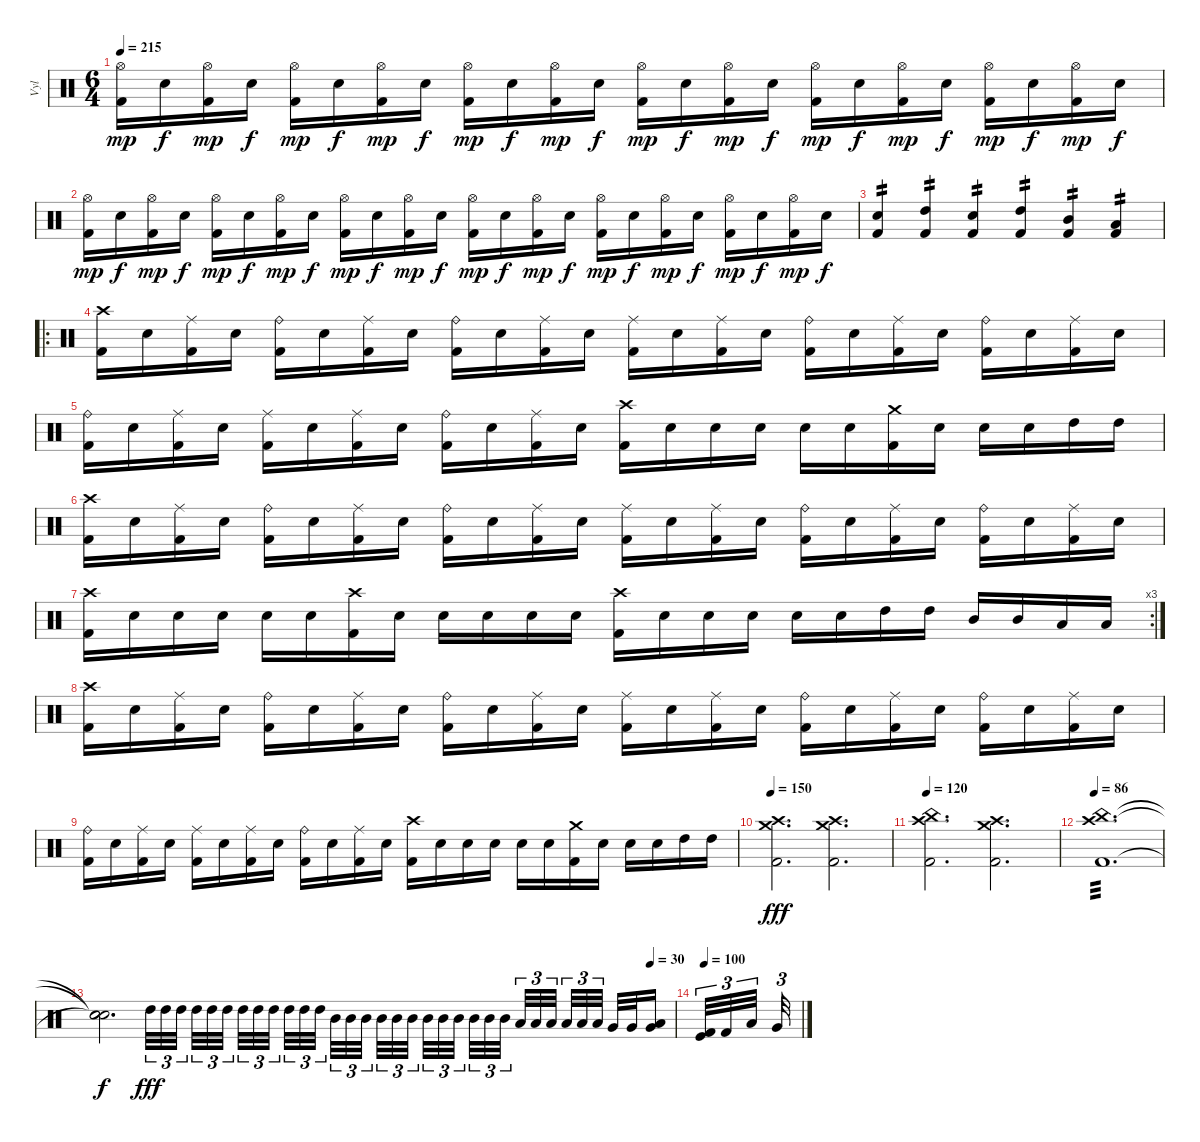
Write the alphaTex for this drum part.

\track ("Vyl" "Vyl") {instrument percussion}
\staff {score}
\articulation defaults
\ts (6 4)
\tempo 215
\clef neutral
\ks c
("Hi-Hat (open)" "Kick (hit) 2").16{dy mp} "Snare (hit) 2".16{dy f} ("Hi-Hat (open)" "Kick (hit) 2").16{dy mp} "Snare (hit) 2".16{dy f} ("Hi-Hat (open)" "Kick (hit) 2").16{dy mp} "Snare (hit) 2".16{dy f} ("Hi-Hat (open)" "Kick (hit) 2").16{dy mp} "Snare (hit) 2".16{dy f} ("Hi-Hat (open)" "Kick (hit) 2").16{dy mp} "Snare (hit) 2".16{dy f} ("Hi-Hat (open)" "Kick (hit) 2").16{dy mp} "Snare (hit) 2".16{dy f} ("Hi-Hat (open)" "Kick (hit) 2").16{dy mp} "Snare (hit) 2".16{dy f} ("Hi-Hat (open)" "Kick (hit) 2").16{dy mp} "Snare (hit) 2".16{dy f} ("Hi-Hat (open)" "Kick (hit) 2").16{dy mp} "Snare (hit) 2".16{dy f} ("Hi-Hat (open)" "Kick (hit) 2").16{dy mp} "Snare (hit) 2".16{dy f} ("Hi-Hat (open)" "Kick (hit) 2").16{dy mp} "Snare (hit) 2".16{dy f} ("Hi-Hat (open)" "Kick (hit) 2").16{dy mp} "Snare (hit) 2".16{dy f} |
("Hi-Hat (open)" "Kick (hit) 2").16{dy mp} "Snare (hit) 2".16{dy f} ("Hi-Hat (open)" "Kick (hit) 2").16{dy mp} "Snare (hit) 2".16{dy f} ("Hi-Hat (open)" "Kick (hit) 2").16{dy mp} "Snare (hit) 2".16{dy f} ("Hi-Hat (open)" "Kick (hit) 2").16{dy mp} "Snare (hit) 2".16{dy f} ("Hi-Hat (open)" "Kick (hit) 2").16{dy mp} "Snare (hit) 2".16{dy f} ("Hi-Hat (open)" "Kick (hit) 2").16{dy mp} "Snare (hit) 2".16{dy f} ("Hi-Hat (open)" "Kick (hit) 2").16{dy mp} "Snare (hit) 2".16{dy f} ("Hi-Hat (open)" "Kick (hit) 2").16{dy mp} "Snare (hit) 2".16{dy f} ("Hi-Hat (open)" "Kick (hit) 2").16{dy mp} "Snare (hit) 2".16{dy f} ("Hi-Hat (open)" "Kick (hit) 2").16{dy mp} "Snare (hit) 2".16{dy f} ("Hi-Hat (open)" "Kick (hit) 2").16{dy mp} "Snare (hit) 2".16{dy f} ("Hi-Hat (open)" "Kick (hit) 2").16{dy mp} "Snare (hit) 2".16{dy f} |
("Kick (hit) 2" "Snare (hit) 2").4{tp 2} ("Kick (hit) 2" "High Tom (hit)").4{tp 2} ("Kick (hit) 2" "Snare (hit) 2").4{tp 2} ("Kick (hit) 2" "High Tom (hit)").4{tp 2} ("Kick (hit) 2" "Mid Tom (hit)").4{tp 2} ("Kick (hit) 2" "Low Tom (hit)").4{tp 2} |
\ro
("Crash high (hit)" "Kick (hit) 2").16 "Snare (hit) 2".16 ("Ride (middle)" "Kick (hit) 2").16 "Snare (hit) 2".16 ("Ride (bell)" "Kick (hit) 2").16 "Snare (hit) 2".16 ("Ride (middle)" "Kick (hit) 2").16 "Snare (hit) 2".16 ("Ride (bell)" "Kick (hit) 2").16 "Snare (hit) 2".16 ("Ride (middle)" "Kick (hit) 2").16 "Snare (hit) 2".16 ("Ride (middle)" "Kick (hit) 2").16 "Snare (hit) 2".16 ("Ride (middle)" "Kick (hit) 2").16 "Snare (hit) 2".16 ("Ride (bell)" "Kick (hit) 2").16 "Snare (hit) 2".16 ("Ride (middle)" "Kick (hit) 2").16 "Snare (hit) 2".16 ("Ride (bell)" "Kick (hit) 2").16 "Snare (hit) 2".16 ("Ride (middle)" "Kick (hit) 2").16 "Snare (hit) 2".16 |
("Ride (bell)" "Kick (hit) 2").16 "Snare (hit) 2".16 ("Ride (middle)" "Kick (hit) 2").16 "Snare (hit) 2".16 ("Ride (middle)" "Kick (hit) 2").16 "Snare (hit) 2".16 ("Ride (middle)" "Kick (hit) 2").16 "Snare (hit) 2".16 ("Ride (bell)" "Kick (hit) 2").16 "Snare (hit) 2".16 ("Ride (middle)" "Kick (hit) 2").16 "Snare (hit) 2".16 ("Crash high (hit)" "Kick (hit) 2").16 "Snare (hit) 2".16 "Snare (hit) 2".16 "Snare (hit) 2".16 "Snare (hit) 2".16 "Snare (hit) 2".16 ("Crash medium (hit)" "Kick (hit) 2").16 "Snare (hit) 2".16 "Snare (hit) 2".16 "Snare (hit) 2".16 "High Tom (hit)".16 "High Tom (hit)".16 |
("Crash high (hit)" "Kick (hit) 2").16 "Snare (hit) 2".16 ("Ride (middle)" "Kick (hit) 2").16 "Snare (hit) 2".16 ("Ride (bell)" "Kick (hit) 2").16 "Snare (hit) 2".16 ("Ride (middle)" "Kick (hit) 2").16 "Snare (hit) 2".16 ("Ride (bell)" "Kick (hit) 2").16 "Snare (hit) 2".16 ("Ride (middle)" "Kick (hit) 2").16 "Snare (hit) 2".16 ("Ride (middle)" "Kick (hit) 2").16 "Snare (hit) 2".16 ("Ride (middle)" "Kick (hit) 2").16 "Snare (hit) 2".16 ("Ride (bell)" "Kick (hit) 2").16 "Snare (hit) 2".16 ("Ride (middle)" "Kick (hit) 2").16 "Snare (hit) 2".16 ("Ride (bell)" "Kick (hit) 2").16 "Snare (hit) 2".16 ("Ride (middle)" "Kick (hit) 2").16 "Snare (hit) 2".16 |
\rc 3
("Crash high (hit)" "Kick (hit) 2").16 "Snare (hit) 2".16 "Snare (hit) 2".16 "Snare (hit) 2".16 "Snare (hit) 2".16 "Snare (hit) 2".16 ("Crash high (hit)" "Kick (hit) 2").16 "Snare (hit) 2".16 "Snare (hit) 2".16 "Snare (hit) 2".16 "Snare (hit) 2".16 "Snare (hit) 2".16 ("Crash high (hit)" "Kick (hit) 2").16 "Snare (hit) 2".16 "Snare (hit) 2".16 "Snare (hit) 2".16 "Snare (hit) 2".16 "Snare (hit) 2".16 "High Tom (hit)".16 "High Tom (hit)".16 "Mid Tom (hit)".16 "Mid Tom (hit)".16 "Low Tom (hit)".16 "Low Tom (hit)".16 |
("Crash high (hit)" "Kick (hit) 2").16 "Snare (hit) 2".16 ("Ride (middle)" "Kick (hit) 2").16 "Snare (hit) 2".16 ("Ride (bell)" "Kick (hit) 2").16 "Snare (hit) 2".16 ("Ride (middle)" "Kick (hit) 2").16 "Snare (hit) 2".16 ("Ride (bell)" "Kick (hit) 2").16 "Snare (hit) 2".16 ("Ride (middle)" "Kick (hit) 2").16 "Snare (hit) 2".16 ("Ride (middle)" "Kick (hit) 2").16 "Snare (hit) 2".16 ("Ride (middle)" "Kick (hit) 2").16 "Snare (hit) 2".16 ("Ride (bell)" "Kick (hit) 2").16 "Snare (hit) 2".16 ("Ride (middle)" "Kick (hit) 2").16 "Snare (hit) 2".16 ("Ride (bell)" "Kick (hit) 2").16 "Snare (hit) 2".16 ("Ride (middle)" "Kick (hit) 2").16 "Snare (hit) 2".16 |
("Ride (bell)" "Kick (hit) 2").16 "Snare (hit) 2".16 ("Ride (middle)" "Kick (hit) 2").16 "Snare (hit) 2".16 ("Ride (middle)" "Kick (hit) 2").16 "Snare (hit) 2".16 ("Ride (middle)" "Kick (hit) 2").16 "Snare (hit) 2".16 ("Ride (bell)" "Kick (hit) 2").16 "Snare (hit) 2".16 ("Ride (middle)" "Kick (hit) 2").16 "Snare (hit) 2".16 ("Crash high (hit)" "Kick (hit) 2").16 "Snare (hit) 2".16 "Snare (hit) 2".16 "Snare (hit) 2".16 "Snare (hit) 2".16 "Snare (hit) 2".16 ("Crash medium (hit)" "Kick (hit) 2").16 "Snare (hit) 2".16 "Snare (hit) 2".16 "Snare (hit) 2".16 "High Tom (hit)".16 "High Tom (hit)".16 |
\tempo 150
("Crash medium (hit)" "Crash high (hit)" "Kick (hit) 2").2{d dy fff} ("Crash medium (hit)" "Crash high (hit)" "Kick (hit) 2").2{d} |
\tempo 120
("China (hit)" "Crash high (hit)" "Kick (hit) 2").2{d} ("Crash medium (hit)" "Crash high (hit)" "Kick (hit) 2").2{d} |
\tempo 86
("Crash high (hit)" "China (hit)" "Kick (hit) 2").1{d tp 3} |
\tempo (30 0.9583333333333334)
("Snare (hit)"{t} "Snare (hit)"{t} "Snare (hit)"{t}).2{d dy f} "High Tom (hit)".32{tu (3 2) dy fff} "High Tom (hit)".32{tu (3 2)} "High Tom (hit)".32{tu (3 2) beam splitsecondary} "High Tom (hit)".32{tu (3 2)} "High Tom (hit)".32{tu (3 2)} "High Tom (hit)".32{tu (3 2) beam splitsecondary} "High Tom (hit)".32{tu (3 2)} "High Tom (hit)".32{tu (3 2)} "High Tom (hit)".32{tu (3 2) beam splitsecondary} "High Tom (hit)".32{tu (3 2)} "High Tom (hit)".32{tu (3 2)} "High Tom (hit)".32{tu (3 2) beam splitsecondary} "Mid Tom (hit)".32{tu (3 2)} "Mid Tom (hit)".32{tu (3 2)} "Mid Tom (hit)".32{tu (3 2) beam splitsecondary} "Mid Tom (hit)".32{tu (3 2)} "Mid Tom (hit)".32{tu (3 2)} "Mid Tom (hit)".32{tu (3 2) beam splitsecondary} "Mid Tom (hit)".32{tu (3 2)} "Mid Tom (hit)".32{tu (3 2)} "Mid Tom (hit)".32{tu (3 2) beam splitsecondary} "Mid Tom (hit)".32{tu (3 2)} "Mid Tom (hit)".32{tu (3 2)} "Mid Tom (hit)".32{tu (3 2) beam splitsecondary} "Low Tom (hit)".32{tu (3 2)} "Low Tom (hit)".32{tu (3 2)} "Low Tom (hit)".32{tu (3 2) beam splitsecondary} "Low Tom (hit)".32{tu (3 2)} "Low Tom (hit)".32{tu (3 2)} "Low Tom (hit)".32{tu (3 2) beam splitsecondary} "Very Low Tom (hit)".32 "Very Low Tom (hit)".32 ("Low Floor Tom (hit)" "Very Low Tom (hit)").16 |
\tempo 100
("Kick (hit)" "Kick (hit) 2").32{tu (3 2)} "Kick (hit) 2".32{tu (3 2)} "Low Floor Tom (hit)".32{tu (3 2) beam splitsecondary} "Very Low Tom (hit)".32{tu (3 2)}
